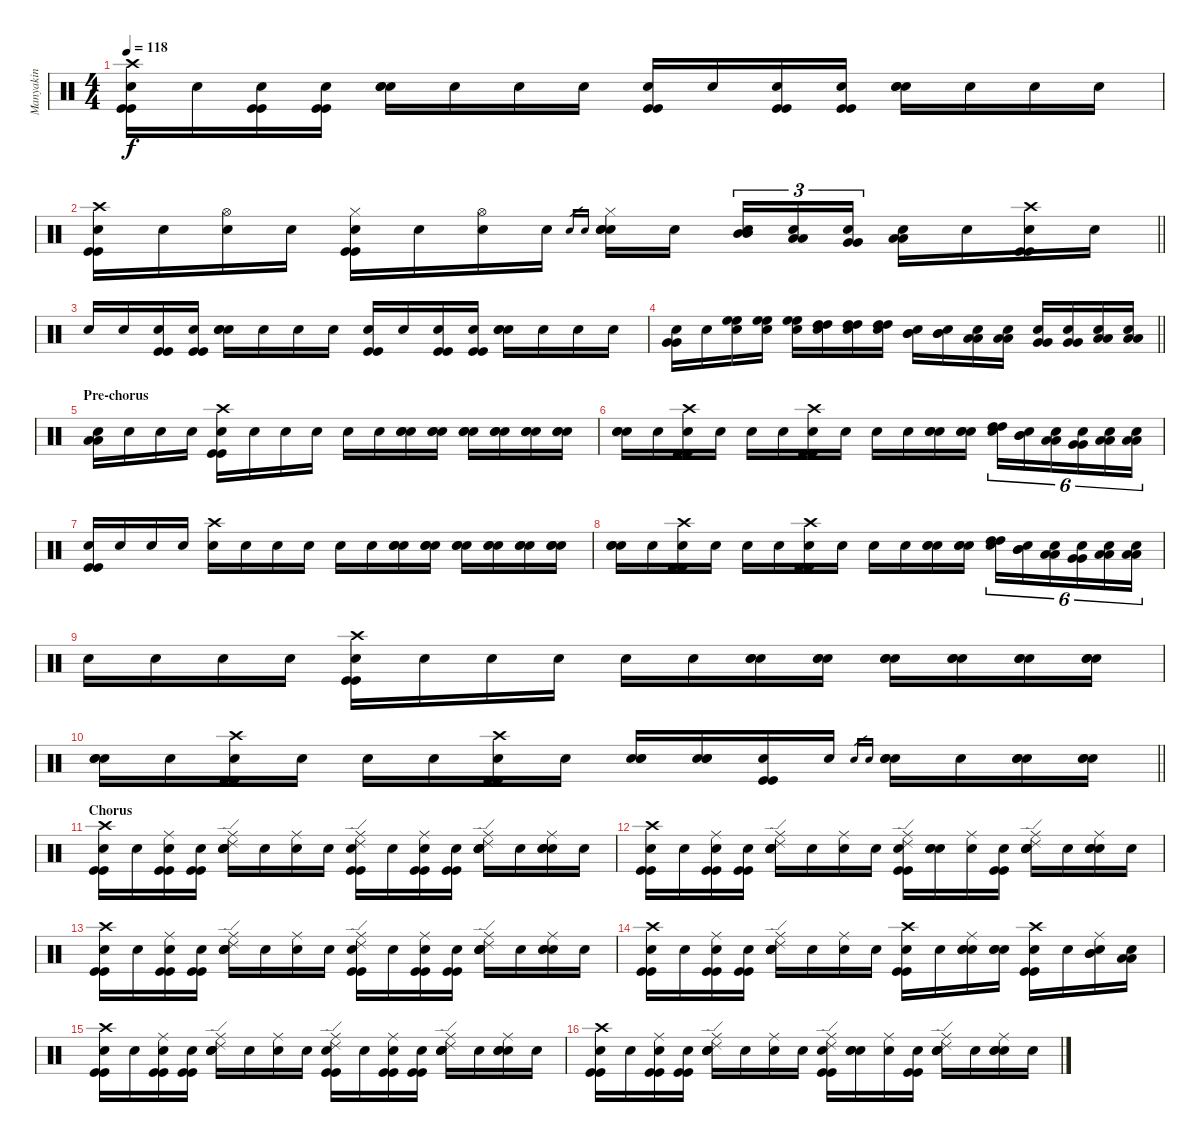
\track ("Manyakin" "Manyakin") {instrument percussion}
\staff {score}
\articulation defaults
\ts (4 4)
\tempo 118
\clef neutral
\ks c
("Crash high (hit)" "Kick (hit)" "Kick (hit)" "Snare (hit)"{x}).16{dy f} "Snare (hit)"{x}.16 ("Kick (hit)" "Kick (hit)" "Snare (hit)"{x}).16 ("Kick (hit)" "Kick (hit)" "Snare (hit)"{x}).16 ("Electric Snare (hit)" "Electric Snare (hit)" "Snare (hit)"{x}).16 "Snare (hit)"{x}.16 "Snare (hit)"{x}.16 "Snare (hit)"{x}.16 ("Kick (hit)" "Kick (hit)" "Snare (hit)"{x}).16 "Snare (hit)"{x}.16 ("Kick (hit)" "Kick (hit)" "Snare (hit)"{x}).16 ("Kick (hit)" "Kick (hit)" "Snare (hit)"{x}).16 ("Electric Snare (hit)" "Electric Snare (hit)" "Snare (hit)"{x}).16 "Snare (hit)"{x}.16 "Snare (hit)"{x}.16 "Snare (hit)"{x}.16 |
\barLineRight lightlight
("Crash high (hit)" "Kick (hit)" "Kick (hit)" "Snare (hit)"{x}).16 "Snare (hit)"{x}.16 ("Hi-Hat (open)" "Snare (hit)"{x}).16 "Snare (hit)"{x}.16 ("Hi-Hat (closed)" "Kick (hit)" "Kick (hit)" "Snare (hit)"{x}).16 "Snare (hit)"{x}.16 ("Hi-Hat (open)" "Snare (hit)"{x}).16 "Snare (hit)"{x}.16 "Electric Snare (hit)".16{gr} "Electric Snare (hit)".16{gr} ("Hi-Hat (closed)" "Electric Snare (hit)" "Electric Snare (hit)" "Snare (hit)"{x}).16 "Snare (hit)"{x}.16 ("Mid Tom (hit)" "Mid Tom (hit)" "Snare (hit)"{x}).16{tu (3 2)} ("Low Tom (hit)" "Low Tom (hit)" "Snare (hit)"{x}).16{tu (3 2)} ("Very Low Tom (hit)" "Very Low Tom (hit)" "Snare (hit)"{x}).16{tu (3 2)} ("Low Floor Tom (hit)" "Low Floor Tom (hit)" "Snare (hit)"{x}).16 "Snare (hit)"{x}.16 ("Crash high (hit)" "Kick (hit)" "Kick (hit)" "Snare (hit)"{x}).16 "Snare (hit)"{x}.16 |
"Snare (hit)"{x}.16 "Snare (hit)"{x}.16 ("Kick (hit)" "Kick (hit)" "Snare (hit)"{x}).16 ("Kick (hit)" "Kick (hit)" "Snare (hit)"{x}).16 ("Electric Snare (hit)" "Electric Snare (hit)" "Snare (hit)"{x}).16 "Snare (hit)"{x}.16 "Snare (hit)"{x}.16 "Snare (hit)"{x}.16 ("Kick (hit)" "Kick (hit)" "Snare (hit)"{x}).16 "Snare (hit)"{x}.16 ("Kick (hit)" "Kick (hit)" "Snare (hit)"{x}).16 ("Kick (hit)" "Kick (hit)" "Snare (hit)"{x}).16 ("Electric Snare (hit)" "Electric Snare (hit)" "Snare (hit)"{x}).16 "Snare (hit)"{x}.16 "Snare (hit)"{x}.16 "Snare (hit)"{x}.16 |
\barLineRight lightlight
("Very Low Tom (hit)" "Very Low Tom (hit)" "Snare (hit)"{x}).16 "Snare (hit)"{x}.16 ("High Floor Tom (hit)" "High Floor Tom (hit)" "Snare (hit)"{x}).16 ("High Floor Tom (hit)" "High Floor Tom (hit)" "Snare (hit)"{x}).16 ("High Floor Tom (hit)" "High Floor Tom (hit)" "Snare (hit)"{x}).16 ("High Tom (hit)" "High Tom (hit)" "Snare (hit)"{x}).16 ("High Tom (hit)" "High Tom (hit)" "Snare (hit)"{x}).16 ("High Tom (hit)" "High Tom (hit)" "Snare (hit)"{x}).16 ("Mid Tom (hit)" "Mid Tom (hit)" "Snare (hit)"{x}).16 ("Mid Tom (hit)" "Mid Tom (hit)" "Snare (hit)"{x}).16 ("Low Tom (hit)" "Low Tom (hit)" "Snare (hit)"{x}).16 ("Low Tom (hit)" "Low Tom (hit)" "Snare (hit)"{x}).16 ("Very Low Tom (hit)" "Very Low Tom (hit)" "Snare (hit)"{x}).16 ("Very Low Tom (hit)" "Very Low Tom (hit)" "Snare (hit)"{x}).16 ("Low Floor Tom (hit)" "Low Floor Tom (hit)" "Snare (hit)"{x}).16 ("Low Floor Tom (hit)" "Low Floor Tom (hit)" "Snare (hit)"{x}).16 |
\section ("" "Pre-chorus")
("Low Floor Tom (hit)" "Low Floor Tom (hit)" "Snare (hit)"{x}).16 "Snare (hit)"{x}.16 "Snare (hit)"{x}.16 "Snare (hit)"{x}.16 ("Crash high (hit)" "Kick (hit)" "Kick (hit)" "Snare (hit)"{x}).16 "Snare (hit)"{x}.16 "Snare (hit)"{x}.16 "Snare (hit)"{x}.16 "Snare (hit)"{x}.16 "Snare (hit)"{x}.16 ("Electric Snare (hit)" "Electric Snare (hit)" "Snare (hit)"{x}).16 ("Electric Snare (hit)" "Electric Snare (hit)" "Snare (hit)"{x}).16 ("Electric Snare (hit)" "Electric Snare (hit)" "Snare (hit)"{x}).16 ("Electric Snare (hit)" "Electric Snare (hit)" "Snare (hit)"{x}).16 ("Electric Snare (hit)" "Electric Snare (hit)" "Snare (hit)"{x}).16 ("Electric Snare (hit)" "Electric Snare (hit)" "Snare (hit)"{x}).16 |
("Electric Snare (hit)" "Electric Snare (hit)" "Snare (hit)"{x}).16 "Snare (hit)"{x}.16 ("Crash high (hit)" "Kick (hit)" "Kick (hit)" "Snare (hit)"{x}).16 "Snare (hit)"{x}.16 "Snare (hit)"{x}.16 "Snare (hit)"{x}.16 ("Crash high (hit)" "Kick (hit)" "Kick (hit)" "Snare (hit)"{x}).16 "Snare (hit)"{x}.16 "Snare (hit)"{x}.16 "Snare (hit)"{x}.16 ("Electric Snare (hit)" "Electric Snare (hit)" "Snare (hit)"{x}).16 ("Electric Snare (hit)" "Electric Snare (hit)" "Snare (hit)"{x}).16 ("High Tom (hit)" "High Tom (hit)" "Snare (hit)"{x}).16{tu (6 4)} ("Mid Tom (hit)" "Mid Tom (hit)" "Snare (hit)"{x}).16{tu (6 4)} ("Low Tom (hit)" "Low Tom (hit)" "Snare (hit)"{x}).16{tu (6 4)} ("Very Low Tom (hit)" "Very Low Tom (hit)" "Snare (hit)"{x}).16{tu (6 4)} ("Low Floor Tom (hit)" "Low Floor Tom (hit)" "Snare (hit)"{x}).16{tu (6 4)} ("Low Floor Tom (hit)" "Low Floor Tom (hit)" "Snare (hit)"{x}).16{tu (6 4)} |
("Kick (hit)" "Kick (hit)" "Snare (hit)"{x}).16 "Snare (hit)"{x}.16 "Snare (hit)"{x}.16 "Snare (hit)"{x}.16 ("Crash high (hit)" "Snare (hit)"{x}).16 "Snare (hit)"{x}.16 "Snare (hit)"{x}.16 "Snare (hit)"{x}.16 "Snare (hit)"{x}.16 "Snare (hit)"{x}.16 ("Electric Snare (hit)" "Electric Snare (hit)" "Snare (hit)"{x}).16 ("Electric Snare (hit)" "Electric Snare (hit)" "Snare (hit)"{x}).16 ("Electric Snare (hit)" "Electric Snare (hit)" "Snare (hit)"{x}).16 ("Electric Snare (hit)" "Electric Snare (hit)" "Snare (hit)"{x}).16 ("Electric Snare (hit)" "Electric Snare (hit)" "Snare (hit)"{x}).16 ("Electric Snare (hit)" "Electric Snare (hit)" "Snare (hit)"{x}).16 |
("Electric Snare (hit)" "Electric Snare (hit)" "Snare (hit)"{x}).16 "Snare (hit)"{x}.16 ("Crash high (hit)" "Kick (hit)" "Kick (hit)" "Snare (hit)"{x}).16 "Snare (hit)"{x}.16 "Snare (hit)"{x}.16 "Snare (hit)"{x}.16 ("Crash high (hit)" "Kick (hit)" "Kick (hit)" "Snare (hit)"{x}).16 "Snare (hit)"{x}.16 "Snare (hit)"{x}.16 "Snare (hit)"{x}.16 ("Electric Snare (hit)" "Electric Snare (hit)" "Snare (hit)"{x}).16 ("Electric Snare (hit)" "Electric Snare (hit)" "Snare (hit)"{x}).16 ("High Tom (hit)" "High Tom (hit)" "Snare (hit)"{x}).16{tu (6 4)} ("Mid Tom (hit)" "Mid Tom (hit)" "Snare (hit)"{x}).16{tu (6 4)} ("Low Tom (hit)" "Low Tom (hit)" "Snare (hit)"{x}).16{tu (6 4)} ("Very Low Tom (hit)" "Very Low Tom (hit)" "Snare (hit)"{x}).16{tu (6 4)} ("Low Floor Tom (hit)" "Low Floor Tom (hit)" "Snare (hit)"{x}).16{tu (6 4)} ("Low Floor Tom (hit)" "Low Floor Tom (hit)" "Snare (hit)"{x}).16{tu (6 4)} |
"Snare (hit)"{x}.16 "Snare (hit)"{x}.16 "Snare (hit)"{x}.16 "Snare (hit)"{x}.16 ("Crash high (hit)" "Kick (hit)" "Kick (hit)" "Snare (hit)"{x}).16 "Snare (hit)"{x}.16 "Snare (hit)"{x}.16 "Snare (hit)"{x}.16 "Snare (hit)"{x}.16 "Snare (hit)"{x}.16 ("Electric Snare (hit)" "Electric Snare (hit)" "Snare (hit)"{x}).16 ("Electric Snare (hit)" "Electric Snare (hit)" "Snare (hit)"{x}).16 ("Electric Snare (hit)" "Electric Snare (hit)" "Snare (hit)"{x}).16 ("Electric Snare (hit)" "Electric Snare (hit)" "Snare (hit)"{x}).16 ("Electric Snare (hit)" "Electric Snare (hit)" "Snare (hit)"{x}).16 ("Electric Snare (hit)" "Electric Snare (hit)" "Snare (hit)"{x}).16 |
\barLineRight lightlight
("Electric Snare (hit)" "Electric Snare (hit)" "Snare (hit)"{x}).16 "Snare (hit)"{x}.16 ("Crash high (hit)" "Kick (hit)" "Kick (hit)" "Snare (hit)"{x}).16 "Snare (hit)"{x}.16 "Snare (hit)"{x}.16 "Snare (hit)"{x}.16 ("Crash high (hit)" "Kick (hit)" "Kick (hit)" "Snare (hit)"{x}).16 "Snare (hit)"{x}.16 ("Electric Snare (hit)" "Electric Snare (hit)" "Snare (hit)"{x}).16 ("Electric Snare (hit)" "Electric Snare (hit)" "Snare (hit)"{x}).16 ("Kick (hit)" "Kick (hit)" "Snare (hit)"{x}).16 "Snare (hit)"{x}.16 "Electric Snare (hit)".16{gr} "Electric Snare (hit)".16{gr} ("Electric Snare (hit)" "Electric Snare (hit)" "Snare (hit)"{x}).16 "Snare (hit)"{x}.16 ("Electric Snare (hit)" "Electric Snare (hit)" "Snare (hit)"{x}).16 ("Electric Snare (hit)" "Electric Snare (hit)" "Snare (hit)"{x}).16 |
\section ("" "Chorus")
("Crash high (hit)" "Kick (hit)" "Kick (hit)" "Snare (hit)"{x}).16 "Snare (hit)"{x}.16 ("Ride (middle)" "Kick (hit)" "Kick (hit)" "Snare (hit)"{x}).16 ("Kick (hit)" "Kick (hit)" "Snare (hit)"{x}).16 ("Ride (middle)" "Ride (edge) 2" "Electric Snare (hit)" "Electric Snare (hit)" "Snare (hit)"{x}).16 "Snare (hit)"{x}.16 ("Ride (middle)" "Snare (hit)"{x}).16 "Snare (hit)"{x}.16 ("Ride (middle)" "Ride (edge) 2" "Kick (hit)" "Kick (hit)" "Snare (hit)"{x}).16 "Snare (hit)"{x}.16 ("Ride (middle)" "Kick (hit)" "Kick (hit)" "Snare (hit)"{x}).16 ("Kick (hit)" "Kick (hit)" "Snare (hit)"{x}).16 ("Ride (middle)" "Ride (edge) 2" "Electric Snare (hit)" "Electric Snare (hit)" "Snare (hit)"{x}).16 "Snare (hit)"{x}.16 ("Ride (middle)" "Electric Snare (hit)" "Electric Snare (hit)" "Snare (hit)"{x}).16 "Snare (hit)"{x}.16 |
("Crash high (hit)" "Kick (hit)" "Kick (hit)" "Snare (hit)"{x}).16 "Snare (hit)"{x}.16 ("Ride (middle)" "Kick (hit)" "Kick (hit)" "Snare (hit)"{x}).16 ("Kick (hit)" "Kick (hit)" "Snare (hit)"{x}).16 ("Ride (middle)" "Ride (edge) 2" "Electric Snare (hit)" "Electric Snare (hit)" "Snare (hit)"{x}).16 "Snare (hit)"{x}.16 ("Ride (middle)" "Snare (hit)"{x}).16 "Snare (hit)"{x}.16 ("Ride (middle)" "Ride (edge) 2" "Kick (hit)" "Kick (hit)" "Snare (hit)"{x}).16 ("Electric Snare (hit)" "Electric Snare (hit)" "Snare (hit)"{x}).16 ("Ride (middle)" "Snare (hit)"{x}).16 ("Kick (hit)" "Kick (hit)" "Snare (hit)"{x}).16 ("Ride (middle)" "Ride (edge) 2" "Electric Snare (hit)" "Electric Snare (hit)" "Snare (hit)"{x}).16 "Snare (hit)"{x}.16 ("Ride (middle)" "Electric Snare (hit)" "Electric Snare (hit)" "Snare (hit)"{x}).16 "Snare (hit)"{x}.16 |
("Crash high (hit)" "Kick (hit)" "Kick (hit)" "Snare (hit)"{x}).16 "Snare (hit)"{x}.16 ("Ride (middle)" "Kick (hit)" "Kick (hit)" "Snare (hit)"{x}).16 ("Kick (hit)" "Kick (hit)" "Snare (hit)"{x}).16 ("Ride (middle)" "Ride (edge) 2" "Electric Snare (hit)" "Electric Snare (hit)" "Snare (hit)"{x}).16 "Snare (hit)"{x}.16 ("Ride (middle)" "Snare (hit)"{x}).16 "Snare (hit)"{x}.16 ("Ride (middle)" "Ride (edge) 2" "Kick (hit)" "Kick (hit)" "Snare (hit)"{x}).16 "Snare (hit)"{x}.16 ("Ride (middle)" "Kick (hit)" "Kick (hit)" "Snare (hit)"{x}).16 ("Kick (hit)" "Kick (hit)" "Snare (hit)"{x}).16 ("Ride (middle)" "Ride (edge) 2" "Electric Snare (hit)" "Electric Snare (hit)" "Snare (hit)"{x}).16 "Snare (hit)"{x}.16 ("Ride (middle)" "Electric Snare (hit)" "Electric Snare (hit)" "Snare (hit)"{x}).16 "Snare (hit)"{x}.16 |
("Crash high (hit)" "Kick (hit)" "Kick (hit)" "Snare (hit)"{x}).16 "Snare (hit)"{x}.16 ("Ride (middle)" "Kick (hit)" "Kick (hit)" "Snare (hit)"{x}).16 ("Kick (hit)" "Kick (hit)" "Snare (hit)"{x}).16 ("Ride (middle)" "Ride (edge) 2" "Electric Snare (hit)" "Electric Snare (hit)" "Snare (hit)"{x}).16 "Snare (hit)"{x}.16 ("Ride (middle)" "Snare (hit)"{x}).16 "Snare (hit)"{x}.16 ("Crash high (hit)" "Kick (hit)" "Kick (hit)" "Snare (hit)"{x}).16 "Snare (hit)"{x}.16 ("Ride (middle)" "Electric Snare (hit)" "Electric Snare (hit)" "Snare (hit)"{x}).16 ("Electric Snare (hit)" "Electric Snare (hit)" "Snare (hit)"{x}).16 ("Crash high (hit)" "Kick (hit)" "Kick (hit)" "Snare (hit)"{x}).16 "Snare (hit)"{x}.16 ("Ride (middle)" "Mid Tom (hit)" "Mid Tom (hit)" "Snare (hit)"{x}).16 ("Low Tom (hit)" "Low Tom (hit)" "Snare (hit)"{x}).16 |
("Crash high (hit)" "Kick (hit)" "Kick (hit)" "Snare (hit)"{x}).16 "Snare (hit)"{x}.16 ("Ride (middle)" "Kick (hit)" "Kick (hit)" "Snare (hit)"{x}).16 ("Kick (hit)" "Kick (hit)" "Snare (hit)"{x}).16 ("Ride (middle)" "Ride (edge) 2" "Electric Snare (hit)" "Electric Snare (hit)" "Snare (hit)"{x}).16 "Snare (hit)"{x}.16 ("Ride (middle)" "Snare (hit)"{x}).16 "Snare (hit)"{x}.16 ("Ride (middle)" "Ride (edge) 2" "Kick (hit)" "Kick (hit)" "Snare (hit)"{x}).16 "Snare (hit)"{x}.16 ("Ride (middle)" "Kick (hit)" "Kick (hit)" "Snare (hit)"{x}).16 ("Kick (hit)" "Kick (hit)" "Snare (hit)"{x}).16 ("Ride (middle)" "Ride (edge) 2" "Electric Snare (hit)" "Electric Snare (hit)" "Snare (hit)"{x}).16 "Snare (hit)"{x}.16 ("Ride (middle)" "Electric Snare (hit)" "Electric Snare (hit)" "Snare (hit)"{x}).16 "Snare (hit)"{x}.16 |
("Crash high (hit)" "Kick (hit)" "Kick (hit)" "Snare (hit)"{x}).16 "Snare (hit)"{x}.16 ("Ride (middle)" "Kick (hit)" "Kick (hit)" "Snare (hit)"{x}).16 ("Kick (hit)" "Kick (hit)" "Snare (hit)"{x}).16 ("Ride (middle)" "Ride (edge) 2" "Electric Snare (hit)" "Electric Snare (hit)" "Snare (hit)"{x}).16 "Snare (hit)"{x}.16 ("Ride (middle)" "Snare (hit)"{x}).16 "Snare (hit)"{x}.16 ("Ride (middle)" "Ride (edge) 2" "Kick (hit)" "Kick (hit)" "Snare (hit)"{x}).16 ("Electric Snare (hit)" "Electric Snare (hit)" "Snare (hit)"{x}).16 ("Ride (middle)" "Snare (hit)"{x}).16 ("Kick (hit)" "Kick (hit)" "Snare (hit)"{x}).16 ("Ride (middle)" "Ride (edge) 2" "Electric Snare (hit)" "Electric Snare (hit)" "Snare (hit)"{x}).16 "Snare (hit)"{x}.16 ("Ride (middle)" "Electric Snare (hit)" "Electric Snare (hit)" "Snare (hit)"{x}).16 "Snare (hit)"{x}.16
